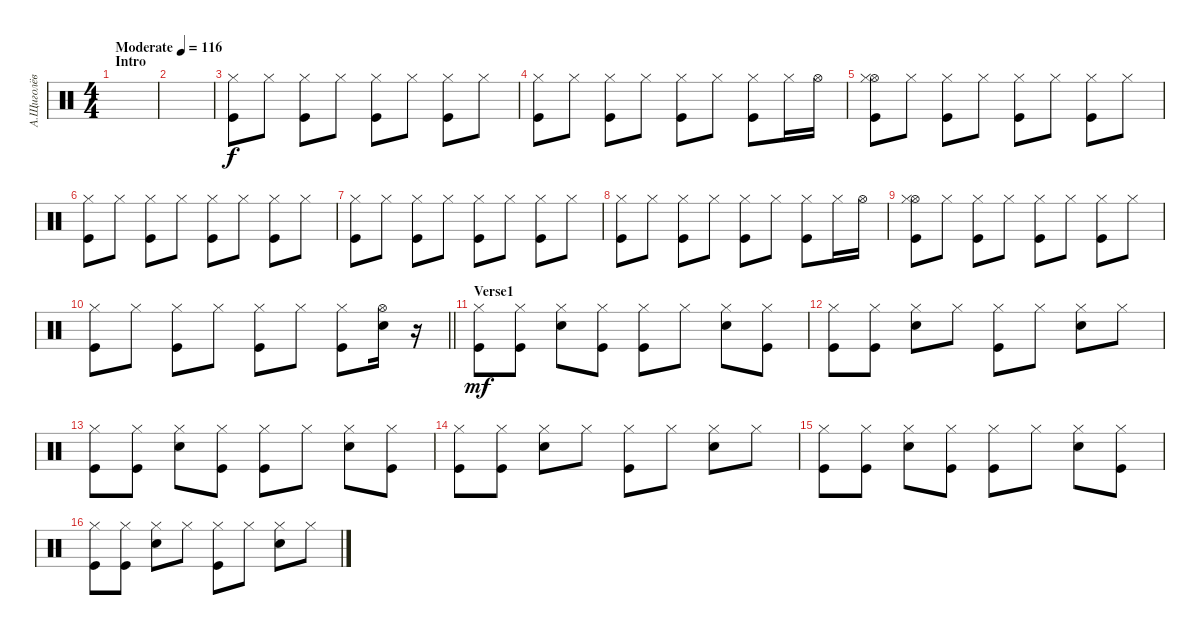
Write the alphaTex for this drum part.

\track ("А.Щиголёв" "А.Щиголёв") {instrument percussion}
\staff {score}
\articulation defaults
\ts (4 4)
\section ("" "Intro")
\tempo (116 "Moderate")
\clef neutral
\ks c
|
|
("Kick (hit)" "Hi-Hat (closed)").8 "Hi-Hat (closed)".8 ("Kick (hit)" "Hi-Hat (closed)").8 "Hi-Hat (closed)".8 ("Kick (hit)" "Hi-Hat (closed)").8 "Hi-Hat (closed)".8 ("Kick (hit)" "Hi-Hat (closed)").8 "Hi-Hat (closed)".8 |
("Kick (hit)" "Hi-Hat (closed)").8 "Hi-Hat (closed)".8 ("Kick (hit)" "Hi-Hat (closed)").8 "Hi-Hat (closed)".8 ("Kick (hit)" "Hi-Hat (closed)").8 "Hi-Hat (closed)".8 ("Kick (hit)" "Hi-Hat (closed)").8 "Hi-Hat (closed)".16 "Hi-Hat (open)".16 |
("Kick (hit)" "Hi-Hat (open)" "Hi-Hat (closed)").8 "Hi-Hat (closed)".8 ("Kick (hit)" "Hi-Hat (closed)").8 "Hi-Hat (closed)".8 ("Kick (hit)" "Hi-Hat (closed)").8 "Hi-Hat (closed)".8 ("Kick (hit)" "Hi-Hat (closed)").8 "Hi-Hat (closed)".8 |
("Kick (hit)" "Hi-Hat (closed)").8 "Hi-Hat (closed)".8 ("Kick (hit)" "Hi-Hat (closed)").8 "Hi-Hat (closed)".8 ("Kick (hit)" "Hi-Hat (closed)").8 "Hi-Hat (closed)".8 ("Kick (hit)" "Hi-Hat (closed)").8 "Hi-Hat (closed)".8 |
("Kick (hit)" "Hi-Hat (closed)").8 "Hi-Hat (closed)".8 ("Kick (hit)" "Hi-Hat (closed)").8 "Hi-Hat (closed)".8 ("Kick (hit)" "Hi-Hat (closed)").8 "Hi-Hat (closed)".8 ("Kick (hit)" "Hi-Hat (closed)").8 "Hi-Hat (closed)".8 |
("Kick (hit)" "Hi-Hat (closed)").8 "Hi-Hat (closed)".8 ("Kick (hit)" "Hi-Hat (closed)").8 "Hi-Hat (closed)".8 ("Kick (hit)" "Hi-Hat (closed)").8 "Hi-Hat (closed)".8 ("Kick (hit)" "Hi-Hat (closed)").8 "Hi-Hat (closed)".16 "Hi-Hat (open)".16 |
("Kick (hit)" "Hi-Hat (open)" "Hi-Hat (closed)").8 "Hi-Hat (closed)".8 ("Kick (hit)" "Hi-Hat (closed)").8 "Hi-Hat (closed)".8 ("Kick (hit)" "Hi-Hat (closed)").8 "Hi-Hat (closed)".8 ("Kick (hit)" "Hi-Hat (closed)").8 "Hi-Hat (closed)".8 |
\barLineRight lightlight
("Kick (hit)" "Hi-Hat (closed)").8 "Hi-Hat (closed)".8 ("Kick (hit)" "Hi-Hat (closed)").8 "Hi-Hat (closed)".8 ("Kick (hit)" "Hi-Hat (closed)").8 "Hi-Hat (closed)".8 ("Kick (hit)" "Hi-Hat (closed)").8 ("Hi-Hat (open)" "Electric Snare (hit)").16 r.16 |
\section ("" "Verse1")
("Kick (hit)" "Hi-Hat (closed)").8{dy mf} ("Kick (hit)" "Hi-Hat (closed)").8 ("Electric Snare (hit)" "Hi-Hat (closed)").8 ("Kick (hit)" "Hi-Hat (closed)").8 ("Kick (hit)" "Hi-Hat (closed)").8 "Hi-Hat (closed)".8 ("Electric Snare (hit)" "Hi-Hat (closed)").8 ("Kick (hit)" "Hi-Hat (closed)").8 |
("Kick (hit)" "Hi-Hat (closed)").8 ("Kick (hit)" "Hi-Hat (closed)").8 ("Electric Snare (hit)" "Hi-Hat (closed)").8 "Hi-Hat (closed)".8 ("Kick (hit)" "Hi-Hat (closed)").8 "Hi-Hat (closed)".8 ("Electric Snare (hit)" "Hi-Hat (closed)").8 "Hi-Hat (closed)".8 |
("Kick (hit)" "Hi-Hat (closed)").8 ("Kick (hit)" "Hi-Hat (closed)").8 ("Electric Snare (hit)" "Hi-Hat (closed)").8 ("Kick (hit)" "Hi-Hat (closed)").8 ("Kick (hit)" "Hi-Hat (closed)").8 "Hi-Hat (closed)".8 ("Electric Snare (hit)" "Hi-Hat (closed)").8 ("Kick (hit)" "Hi-Hat (closed)").8 |
("Kick (hit)" "Hi-Hat (closed)").8 ("Kick (hit)" "Hi-Hat (closed)").8 ("Electric Snare (hit)" "Hi-Hat (closed)").8 "Hi-Hat (closed)".8 ("Kick (hit)" "Hi-Hat (closed)").8 "Hi-Hat (closed)".8 ("Electric Snare (hit)" "Hi-Hat (closed)").8 "Hi-Hat (closed)".8 |
("Kick (hit)" "Hi-Hat (closed)").8 ("Kick (hit)" "Hi-Hat (closed)").8 ("Electric Snare (hit)" "Hi-Hat (closed)").8 ("Kick (hit)" "Hi-Hat (closed)").8 ("Kick (hit)" "Hi-Hat (closed)").8 "Hi-Hat (closed)".8 ("Electric Snare (hit)" "Hi-Hat (closed)").8 ("Kick (hit)" "Hi-Hat (closed)").8 |
("Kick (hit)" "Hi-Hat (closed)").8 ("Kick (hit)" "Hi-Hat (closed)").8 ("Electric Snare (hit)" "Hi-Hat (closed)").8 "Hi-Hat (closed)".8 ("Kick (hit)" "Hi-Hat (closed)").8 "Hi-Hat (closed)".8 ("Electric Snare (hit)" "Hi-Hat (closed)").8 "Hi-Hat (closed)".8
